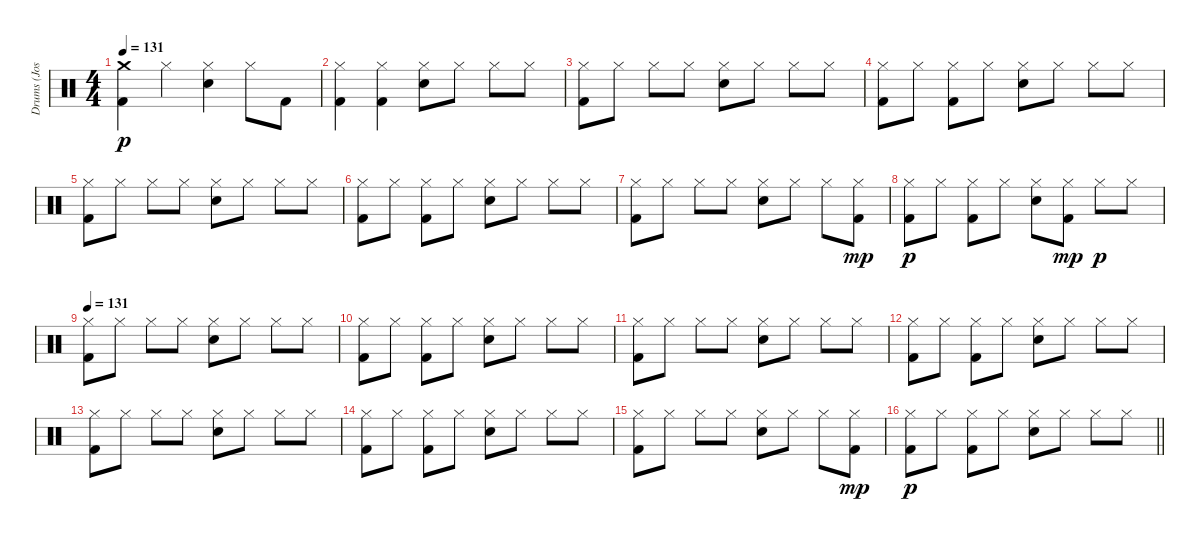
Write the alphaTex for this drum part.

\track ("Drums (Josh Freese)" "Drums (Jos") {instrument percussion}
\staff {score}
\articulation defaults
\ts (4 4)
\tempo 131
\clef neutral
\ks c
("Crash medium (hit)" "Kick (hit) 2").4{dy p} "Hi-Hat (closed)".4 ("Hi-Hat (closed)" "Electric Snare (hit)").4 "Hi-Hat (closed)".8 "Kick (hit) 2".8 |
("Hi-Hat (closed)" "Kick (hit) 2").4 ("Hi-Hat (closed)" "Kick (hit) 2").4 ("Hi-Hat (closed)" "Electric Snare (hit)").8 "Hi-Hat (closed)".8 "Hi-Hat (closed)".8 "Hi-Hat (closed)".8 |
("Hi-Hat (closed)" "Kick (hit) 2").8 "Hi-Hat (closed)".8 "Hi-Hat (closed)".8 "Hi-Hat (closed)".8 ("Hi-Hat (closed)" "Electric Snare (hit)").8 "Hi-Hat (closed)".8 "Hi-Hat (closed)".8 "Hi-Hat (closed)".8 |
("Hi-Hat (closed)" "Kick (hit) 2").8 "Hi-Hat (closed)".8 ("Hi-Hat (closed)" "Kick (hit) 2").8 "Hi-Hat (closed)".8 ("Hi-Hat (closed)" "Electric Snare (hit)").8 "Hi-Hat (closed)".8 "Hi-Hat (closed)".8 "Hi-Hat (closed)".8 |
("Hi-Hat (closed)" "Kick (hit) 2").8 "Hi-Hat (closed)".8 "Hi-Hat (closed)".8 "Hi-Hat (closed)".8 ("Hi-Hat (closed)" "Electric Snare (hit)").8 "Hi-Hat (closed)".8 "Hi-Hat (closed)".8 "Hi-Hat (closed)".8 |
("Hi-Hat (closed)" "Kick (hit) 2").8 "Hi-Hat (closed)".8 ("Hi-Hat (closed)" "Kick (hit) 2").8 "Hi-Hat (closed)".8 ("Hi-Hat (closed)" "Electric Snare (hit)").8 "Hi-Hat (closed)".8 "Hi-Hat (closed)".8 "Hi-Hat (closed)".8 |
("Hi-Hat (closed)" "Kick (hit) 2").8 "Hi-Hat (closed)".8 "Hi-Hat (closed)".8 "Hi-Hat (closed)".8 ("Hi-Hat (closed)" "Electric Snare (hit)").8 "Hi-Hat (closed)".8 "Hi-Hat (closed)".8 ("Hi-Hat (closed)" "Kick (hit) 2").8{dy mp} |
("Hi-Hat (closed)" "Kick (hit) 2").8{dy p} "Hi-Hat (closed)".8 ("Hi-Hat (closed)" "Kick (hit) 2").8 "Hi-Hat (closed)".8 ("Hi-Hat (closed)" "Electric Snare (hit)").8 ("Hi-Hat (closed)" "Kick (hit) 2").8{dy mp} "Hi-Hat (closed)".8{dy p} "Hi-Hat (closed)".8 |
\tempo 131
("Hi-Hat (closed)" "Kick (hit) 2").8 "Hi-Hat (closed)".8 "Hi-Hat (closed)".8 "Hi-Hat (closed)".8 ("Hi-Hat (closed)" "Electric Snare (hit)").8 "Hi-Hat (closed)".8 "Hi-Hat (closed)".8 "Hi-Hat (closed)".8 |
("Hi-Hat (closed)" "Kick (hit) 2").8 "Hi-Hat (closed)".8 ("Hi-Hat (closed)" "Kick (hit) 2").8 "Hi-Hat (closed)".8 ("Hi-Hat (closed)" "Electric Snare (hit)").8 "Hi-Hat (closed)".8 "Hi-Hat (closed)".8 "Hi-Hat (closed)".8 |
("Hi-Hat (closed)" "Kick (hit) 2").8 "Hi-Hat (closed)".8 "Hi-Hat (closed)".8 "Hi-Hat (closed)".8 ("Hi-Hat (closed)" "Electric Snare (hit)").8 "Hi-Hat (closed)".8 "Hi-Hat (closed)".8 "Hi-Hat (closed)".8 |
("Hi-Hat (closed)" "Kick (hit) 2").8 "Hi-Hat (closed)".8 ("Hi-Hat (closed)" "Kick (hit) 2").8 "Hi-Hat (closed)".8 ("Hi-Hat (closed)" "Electric Snare (hit)").8 "Hi-Hat (closed)".8 "Hi-Hat (closed)".8 "Hi-Hat (closed)".8 |
("Hi-Hat (closed)" "Kick (hit) 2").8 "Hi-Hat (closed)".8 "Hi-Hat (closed)".8 "Hi-Hat (closed)".8 ("Hi-Hat (closed)" "Electric Snare (hit)").8 "Hi-Hat (closed)".8 "Hi-Hat (closed)".8 "Hi-Hat (closed)".8 |
("Hi-Hat (closed)" "Kick (hit) 2").8 "Hi-Hat (closed)".8 ("Hi-Hat (closed)" "Kick (hit) 2").8 "Hi-Hat (closed)".8 ("Hi-Hat (closed)" "Electric Snare (hit)").8 "Hi-Hat (closed)".8 "Hi-Hat (closed)".8 "Hi-Hat (closed)".8 |
("Hi-Hat (closed)" "Kick (hit) 2").8 "Hi-Hat (closed)".8 "Hi-Hat (closed)".8 "Hi-Hat (closed)".8 ("Hi-Hat (closed)" "Electric Snare (hit)").8 "Hi-Hat (closed)".8 "Hi-Hat (closed)".8 ("Hi-Hat (closed)" "Kick (hit) 2").8{dy mp} |
\barLineRight lightlight
("Hi-Hat (closed)" "Kick (hit) 2").8{dy p} "Hi-Hat (closed)".8 ("Hi-Hat (closed)" "Kick (hit) 2").8 "Hi-Hat (closed)".8 ("Hi-Hat (closed)" "Electric Snare (hit)").8 "Hi-Hat (closed)".8 "Hi-Hat (closed)".8 "Hi-Hat (closed)".8
